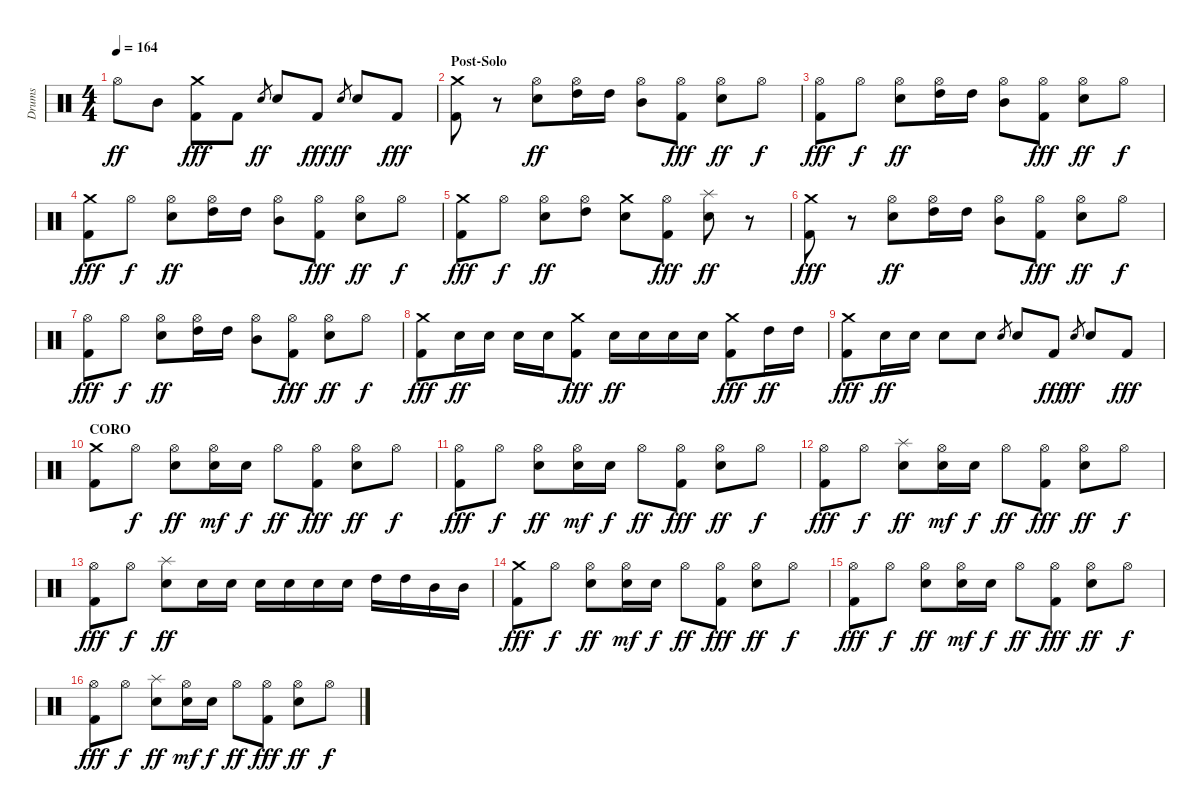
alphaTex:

\track ("Drums" "Drums") {instrument percussion}
\staff {score}
\articulation defaults
\ts (4 4)
\tempo 164
\clef neutral
\ks c "Hi-Hat (open)".8{dy ff} "Mid Tom (hit)".8
("Crash medium (hit)" "Kick (hit) 2").8{dy fff} "Kick (hit) 2".8 "Snare (hit) 2".8{gr dy ff} "Snare (hit) 2".8 "Kick (hit) 2".8{dy fff} "Snare (hit) 2".8{gr dy ff} "Snare (hit) 2".8 "Kick (hit) 2".8{dy fff} |
\section ("" "Post-Solo")
("Crash medium (hit)" "Kick (hit) 2").8 r.8 ("Hi-Hat (open)" "Snare (hit) 2").8{dy ff} ("Hi-Hat (open)" "High Tom (hit)").16 "High Tom (hit)".16 ("Hi-Hat (open)" "Mid Tom (hit)").8 ("Hi-Hat (open)" "Kick (hit) 2").8{dy fff} ("Hi-Hat (open)" "Snare (hit) 2").8{dy ff} "Hi-Hat (open)".8{dy f} |
("Hi-Hat (open)" "Kick (hit) 2").8{dy fff} "Hi-Hat (open)".8{dy f} ("Hi-Hat (open)" "Snare (hit) 2").8{dy ff} ("Hi-Hat (open)" "High Tom (hit)").16 "High Tom (hit)".16 ("Hi-Hat (open)" "Mid Tom (hit)").8 ("Hi-Hat (open)" "Kick (hit) 2").8{dy fff} ("Hi-Hat (open)" "Snare (hit) 2").8{dy ff} "Hi-Hat (open)".8{dy f} |
("Crash medium (hit)" "Kick (hit) 2").8{dy fff} "Hi-Hat (open)".8{dy f} ("Hi-Hat (open)" "Snare (hit) 2").8{dy ff} ("Hi-Hat (open)" "High Tom (hit)").16 "High Tom (hit)".16 ("Hi-Hat (open)" "Mid Tom (hit)").8 ("Hi-Hat (open)" "Kick (hit) 2").8{dy fff} ("Hi-Hat (open)" "Snare (hit) 2").8{dy ff} "Hi-Hat (open)".8{dy f} |
("Crash medium (hit)" "Kick (hit) 2").8{dy fff} "Hi-Hat (open)".8{dy f} ("Hi-Hat (open)" "Snare (hit) 2").8{dy ff} ("Hi-Hat (open)" "High Tom (hit)").8 ("Crash medium (hit)" "Snare (hit) 2").8 ("Hi-Hat (open)" "Kick (hit) 2").8{dy fff} ("Splash (hit)" "Snare (hit) 2").8{dy ff} r.8 |
("Crash medium (hit)" "Kick (hit) 2").8{dy fff} r.8 ("Hi-Hat (open)" "Snare (hit) 2").8{dy ff} ("Hi-Hat (open)" "High Tom (hit)").16 "High Tom (hit)".16 ("Hi-Hat (open)" "Mid Tom (hit)").8 ("Hi-Hat (open)" "Kick (hit) 2").8{dy fff} ("Hi-Hat (open)" "Snare (hit) 2").8{dy ff} "Hi-Hat (open)".8{dy f} |
("Hi-Hat (open)" "Kick (hit) 2").8{dy fff} "Hi-Hat (open)".8{dy f} ("Hi-Hat (open)" "Snare (hit) 2").8{dy ff} ("Hi-Hat (open)" "High Tom (hit)").16 "High Tom (hit)".16 ("Hi-Hat (open)" "Mid Tom (hit)").8 ("Hi-Hat (open)" "Kick (hit) 2").8{dy fff} ("Hi-Hat (open)" "Snare (hit) 2").8{dy ff} "Hi-Hat (open)".8{dy f} |
("Crash medium (hit)" "Kick (hit) 2").8{dy fff} "Snare (hit) 2".16{dy ff} "Snare (hit) 2".16 "Snare (hit) 2".16 "Snare (hit) 2".16 ("Crash medium (hit)" "Kick (hit) 2").8{dy fff} "Snare (hit) 2".16{dy ff} "Snare (hit) 2".16 "Snare (hit) 2".16 "Snare (hit) 2".16 ("Crash medium (hit)" "Kick (hit) 2").8{dy fff} "High Tom (hit)".16{dy ff} "High Tom (hit)".16 |
("Crash medium (hit)" "Kick (hit) 2").8{dy fff} "Snare (hit) 2".16{dy ff} "Snare (hit) 2".16 "Snare (hit) 2".8 "Snare (hit) 2".8 "Snare (hit) 2".8{gr} "Snare (hit) 2".8 "Kick (hit) 2".8{dy fff} "Snare (hit) 2".8{gr dy ff} "Snare (hit) 2".8 "Kick (hit) 2".8{dy fff} |
\section ("" "CORO")
("Crash medium (hit)" "Kick (hit) 2").8 "Hi-Hat (open)".8{dy f} ("Hi-Hat (open)" "Snare (hit) 2").8{dy ff} ("Hi-Hat (open)" "Snare (hit) 2").16{dy mf} "Snare (hit) 2".16{dy f} "Hi-Hat (open)".8{dy ff} ("Hi-Hat (open)" "Kick (hit) 2").8{dy fff} ("Hi-Hat (open)" "Snare (hit) 2").8{dy ff} "Hi-Hat (open)".8{dy f} |
("Hi-Hat (open)" "Kick (hit) 2").8{dy fff} "Hi-Hat (open)".8{dy f} ("Hi-Hat (open)" "Snare (hit) 2").8{dy ff} ("Hi-Hat (open)" "Snare (hit) 2").16{dy mf} "Snare (hit) 2".16{dy f} "Hi-Hat (open)".8{dy ff} ("Hi-Hat (open)" "Kick (hit) 2").8{dy fff} ("Hi-Hat (open)" "Snare (hit) 2").8{dy ff} "Hi-Hat (open)".8{dy f} |
("Hi-Hat (open)" "Kick (hit) 2").8{dy fff} "Hi-Hat (open)".8{dy f} ("Splash (hit)" "Snare (hit) 2").8{dy ff} ("Hi-Hat (open)" "Snare (hit) 2").16{dy mf} "Snare (hit) 2".16{dy f} "Hi-Hat (open)".8{dy ff} ("Hi-Hat (open)" "Kick (hit) 2").8{dy fff} ("Hi-Hat (open)" "Snare (hit) 2").8{dy ff} "Hi-Hat (open)".8{dy f} |
("Hi-Hat (open)" "Kick (hit) 2").8{dy fff} "Hi-Hat (open)".8{dy f} ("Splash (hit)" "Snare (hit) 2").8{dy ff} "Snare (hit) 2".16 "Snare (hit) 2".16 "Snare (hit) 2".16 "Snare (hit) 2".16 "Snare (hit) 2".16 "Snare (hit) 2".16 "High Tom (hit)".16 "High Tom (hit)".16 "Mid Tom (hit)".16 "Mid Tom (hit)".16 |
("Crash medium (hit)" "Kick (hit) 2").8{dy fff} "Hi-Hat (open)".8{dy f} ("Hi-Hat (open)" "Snare (hit) 2").8{dy ff} ("Hi-Hat (open)" "Snare (hit) 2").16{dy mf} "Snare (hit) 2".16{dy f} "Hi-Hat (open)".8{dy ff} ("Hi-Hat (open)" "Kick (hit) 2").8{dy fff} ("Hi-Hat (open)" "Snare (hit) 2").8{dy ff} "Hi-Hat (open)".8{dy f} |
("Hi-Hat (open)" "Kick (hit) 2").8{dy fff} "Hi-Hat (open)".8{dy f} ("Hi-Hat (open)" "Snare (hit) 2").8{dy ff} ("Hi-Hat (open)" "Snare (hit) 2").16{dy mf} "Snare (hit) 2".16{dy f} "Hi-Hat (open)".8{dy ff} ("Hi-Hat (open)" "Kick (hit) 2").8{dy fff} ("Hi-Hat (open)" "Snare (hit) 2").8{dy ff} "Hi-Hat (open)".8{dy f} |
("Hi-Hat (open)" "Kick (hit) 2").8{dy fff} "Hi-Hat (open)".8{dy f} ("Splash (hit)" "Snare (hit) 2").8{dy ff} ("Hi-Hat (open)" "Snare (hit) 2").16{dy mf} "Snare (hit) 2".16{dy f} "Hi-Hat (open)".8{dy ff} ("Hi-Hat (open)" "Kick (hit) 2").8{dy fff} ("Hi-Hat (open)" "Snare (hit) 2").8{dy ff} "Hi-Hat (open)".8{dy f}
